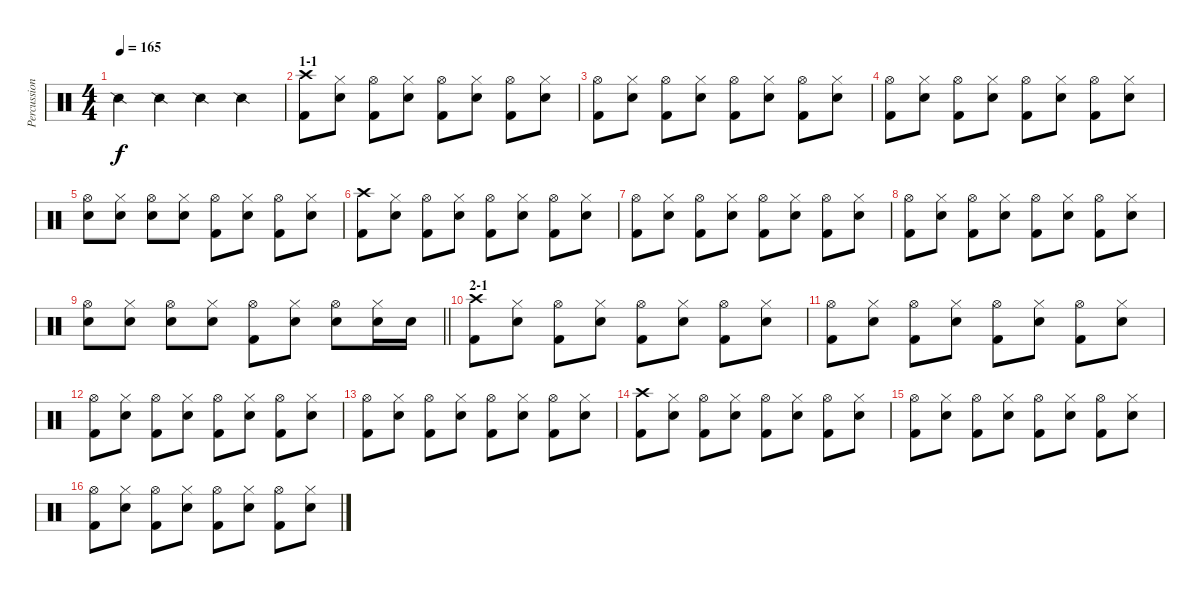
\track ("Percussion" "Percussion") {instrument percussion}
\staff {score}
\articulation defaults
\ts (4 4)
\tempo 165
\clef neutral
\ks c "Snare (side stick) 2".4{dy f} "Snare (side stick) 2".4 "Snare (side stick) 2".4 "Snare (side stick) 2".4
|
\section ("" "1-1")
("Crash high (hit)" "Kick (hit) 2").8 ("Hi-Hat (closed)" "Snare (hit) 2").8 ("Hi-Hat (open)" "Kick (hit) 2").8 ("Hi-Hat (closed)" "Snare (hit) 2").8 ("Hi-Hat (open)" "Kick (hit) 2").8 ("Hi-Hat (closed)" "Snare (hit) 2").8 ("Hi-Hat (open)" "Kick (hit) 2").8 ("Hi-Hat (closed)" "Snare (hit) 2").8 |
("Hi-Hat (open)" "Kick (hit) 2").8 ("Hi-Hat (closed)" "Snare (hit) 2").8 ("Hi-Hat (open)" "Kick (hit) 2").8 ("Hi-Hat (closed)" "Snare (hit) 2").8 ("Hi-Hat (open)" "Kick (hit) 2").8 ("Hi-Hat (closed)" "Snare (hit) 2").8 ("Hi-Hat (open)" "Kick (hit) 2").8 ("Hi-Hat (closed)" "Snare (hit) 2").8 |
("Hi-Hat (open)" "Kick (hit) 2").8 ("Hi-Hat (closed)" "Snare (hit) 2").8 ("Hi-Hat (open)" "Kick (hit) 2").8 ("Hi-Hat (closed)" "Snare (hit) 2").8 ("Hi-Hat (open)" "Kick (hit) 2").8 ("Hi-Hat (closed)" "Snare (hit) 2").8 ("Hi-Hat (open)" "Kick (hit) 2").8 ("Hi-Hat (closed)" "Snare (hit) 2").8 |
("Hi-Hat (open)" "Snare (hit) 2").8 ("Hi-Hat (closed)" "Snare (hit) 2").8 ("Hi-Hat (open)" "Snare (hit) 2").8 ("Hi-Hat (closed)" "Snare (hit) 2").8 ("Hi-Hat (open)" "Kick (hit) 2").8 ("Hi-Hat (closed)" "Snare (hit) 2").8 ("Hi-Hat (open)" "Kick (hit) 2").8 ("Hi-Hat (closed)" "Snare (hit) 2").8 |
("Crash high (hit)" "Kick (hit) 2").8 ("Hi-Hat (closed)" "Snare (hit) 2").8 ("Hi-Hat (open)" "Kick (hit) 2").8 ("Hi-Hat (closed)" "Snare (hit) 2").8 ("Hi-Hat (open)" "Kick (hit) 2").8 ("Hi-Hat (closed)" "Snare (hit) 2").8 ("Hi-Hat (open)" "Kick (hit) 2").8 ("Hi-Hat (closed)" "Snare (hit) 2").8 |
("Hi-Hat (open)" "Kick (hit) 2").8 ("Hi-Hat (closed)" "Snare (hit) 2").8 ("Hi-Hat (open)" "Kick (hit) 2").8 ("Hi-Hat (closed)" "Snare (hit) 2").8 ("Hi-Hat (open)" "Kick (hit) 2").8 ("Hi-Hat (closed)" "Snare (hit) 2").8 ("Hi-Hat (open)" "Kick (hit) 2").8 ("Hi-Hat (closed)" "Snare (hit) 2").8 |
("Hi-Hat (open)" "Kick (hit) 2").8 ("Hi-Hat (closed)" "Snare (hit) 2").8 ("Hi-Hat (open)" "Kick (hit) 2").8 ("Hi-Hat (closed)" "Snare (hit) 2").8 ("Hi-Hat (open)" "Kick (hit) 2").8 ("Hi-Hat (closed)" "Snare (hit) 2").8 ("Hi-Hat (open)" "Kick (hit) 2").8 ("Hi-Hat (closed)" "Snare (hit) 2").8 |
\barLineRight lightlight
("Hi-Hat (open)" "Snare (hit) 2").8 ("Hi-Hat (closed)" "Snare (hit) 2").8 ("Hi-Hat (open)" "Snare (hit) 2").8 ("Hi-Hat (closed)" "Snare (hit) 2").8 ("Hi-Hat (open)" "Kick (hit) 2").8 ("Hi-Hat (closed)" "Snare (hit) 2").8 ("Hi-Hat (open)" "Snare (hit) 2").8 ("Hi-Hat (closed)" "Snare (hit) 2").16 "Snare (hit) 2".16 |
\section ("" "2-1")
("Crash high (hit)" "Kick (hit) 2").8 ("Hi-Hat (closed)" "Snare (hit) 2").8 ("Hi-Hat (open)" "Kick (hit) 2").8 ("Hi-Hat (closed)" "Snare (hit) 2").8 ("Hi-Hat (open)" "Kick (hit) 2").8 ("Hi-Hat (closed)" "Snare (hit) 2").8 ("Hi-Hat (open)" "Kick (hit) 2").8 ("Hi-Hat (closed)" "Snare (hit) 2").8 |
("Hi-Hat (open)" "Kick (hit) 2").8 ("Hi-Hat (closed)" "Snare (hit) 2").8 ("Hi-Hat (open)" "Kick (hit) 2").8 ("Hi-Hat (closed)" "Snare (hit) 2").8 ("Hi-Hat (open)" "Kick (hit) 2").8 ("Hi-Hat (closed)" "Snare (hit) 2").8 ("Hi-Hat (open)" "Kick (hit) 2").8 ("Hi-Hat (closed)" "Snare (hit) 2").8 |
("Hi-Hat (open)" "Kick (hit) 2").8 ("Hi-Hat (closed)" "Snare (hit) 2").8 ("Hi-Hat (open)" "Kick (hit) 2").8 ("Hi-Hat (closed)" "Snare (hit) 2").8 ("Hi-Hat (open)" "Kick (hit) 2").8 ("Hi-Hat (closed)" "Snare (hit) 2").8 ("Hi-Hat (open)" "Kick (hit) 2").8 ("Hi-Hat (closed)" "Snare (hit) 2").8 |
("Hi-Hat (open)" "Kick (hit) 2").8 ("Hi-Hat (closed)" "Snare (hit) 2").8 ("Hi-Hat (open)" "Kick (hit) 2").8 ("Hi-Hat (closed)" "Snare (hit) 2").8 ("Hi-Hat (open)" "Kick (hit) 2").8 ("Hi-Hat (closed)" "Snare (hit) 2").8 ("Hi-Hat (open)" "Kick (hit) 2").8 ("Hi-Hat (closed)" "Snare (hit) 2").8 |
("Crash high (hit)" "Kick (hit) 2").8 ("Hi-Hat (closed)" "Snare (hit) 2").8 ("Hi-Hat (open)" "Kick (hit) 2").8 ("Hi-Hat (closed)" "Snare (hit) 2").8 ("Hi-Hat (open)" "Kick (hit) 2").8 ("Hi-Hat (closed)" "Snare (hit) 2").8 ("Hi-Hat (open)" "Kick (hit) 2").8 ("Hi-Hat (closed)" "Snare (hit) 2").8 |
("Hi-Hat (open)" "Kick (hit) 2").8 ("Hi-Hat (closed)" "Snare (hit) 2").8 ("Hi-Hat (open)" "Kick (hit) 2").8 ("Hi-Hat (closed)" "Snare (hit) 2").8 ("Hi-Hat (open)" "Kick (hit) 2").8 ("Hi-Hat (closed)" "Snare (hit) 2").8 ("Hi-Hat (open)" "Kick (hit) 2").8 ("Hi-Hat (closed)" "Snare (hit) 2").8 |
("Hi-Hat (open)" "Kick (hit) 2").8 ("Hi-Hat (closed)" "Snare (hit) 2").8 ("Hi-Hat (open)" "Kick (hit) 2").8 ("Hi-Hat (closed)" "Snare (hit) 2").8 ("Hi-Hat (open)" "Kick (hit) 2").8 ("Hi-Hat (closed)" "Snare (hit) 2").8 ("Hi-Hat (open)" "Kick (hit) 2").8 ("Hi-Hat (closed)" "Snare (hit) 2").8
